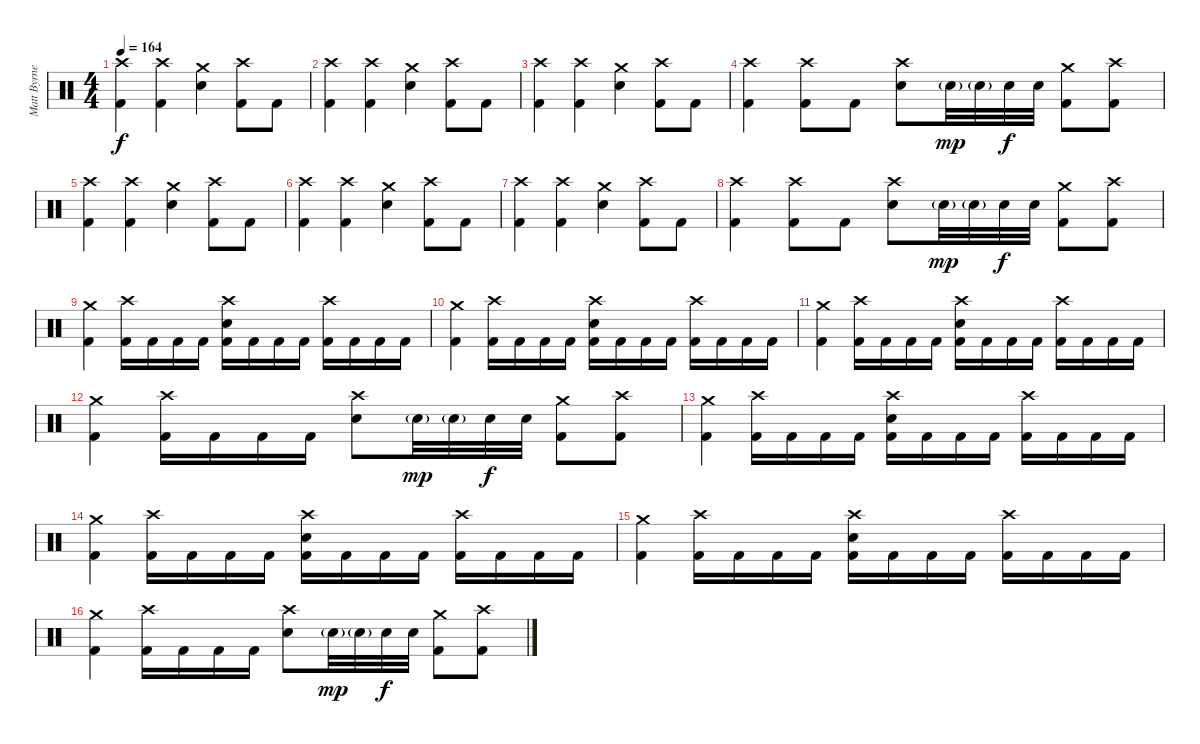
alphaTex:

\track ("Matt Byrne (Drums)" "Matt Byrne") {instrument percussion}
\staff {score}
\articulation defaults
\ts (4 4)
\tempo 164
\clef neutral
\ks c
("Crash high (hit)" "Kick (hit) 2").4{dy f} ("Crash high (hit)" "Kick (hit) 2").4 ("Crash medium (hit)" "Electric Snare (hit)").4 ("Crash high (hit)" "Kick (hit) 2").8 "Kick (hit) 2".8 |
("Crash high (hit)" "Kick (hit) 2").4 ("Crash high (hit)" "Kick (hit) 2").4 ("Crash medium (hit)" "Electric Snare (hit)").4 ("Crash high (hit)" "Kick (hit) 2").8 "Kick (hit) 2".8 |
("Crash high (hit)" "Kick (hit) 2").4 ("Crash high (hit)" "Kick (hit) 2").4 ("Crash medium (hit)" "Electric Snare (hit)").4 ("Crash high (hit)" "Kick (hit) 2").8 "Kick (hit) 2".8 |
("Crash high (hit)" "Kick (hit) 2").4 ("Crash high (hit)" "Kick (hit) 2").8 "Kick (hit) 2".8 ("Crash high (hit)" "Electric Snare (hit)").8 "Electric Snare (hit)"{g}.32{dy mp} "Electric Snare (hit)"{g}.32 "Electric Snare (hit)".32{dy f} "Electric Snare (hit)".32 ("Crash medium (hit)" "Kick (hit) 2").8 ("Crash high (hit)" "Kick (hit) 2").8 |
("Crash high (hit)" "Kick (hit) 2").4 ("Crash high (hit)" "Kick (hit) 2").4 ("Crash medium (hit)" "Electric Snare (hit)").4 ("Crash high (hit)" "Kick (hit) 2").8 "Kick (hit) 2".8 |
("Crash high (hit)" "Kick (hit) 2").4 ("Crash high (hit)" "Kick (hit) 2").4 ("Crash medium (hit)" "Electric Snare (hit)").4 ("Crash high (hit)" "Kick (hit) 2").8 "Kick (hit) 2".8 |
("Crash high (hit)" "Kick (hit) 2").4 ("Crash high (hit)" "Kick (hit) 2").4 ("Crash medium (hit)" "Electric Snare (hit)").4 ("Crash high (hit)" "Kick (hit) 2").8 "Kick (hit) 2".8 |
("Crash high (hit)" "Kick (hit) 2").4 ("Crash high (hit)" "Kick (hit) 2").8 "Kick (hit) 2".8 ("Crash high (hit)" "Electric Snare (hit)").8 "Electric Snare (hit)"{g}.32{dy mp} "Electric Snare (hit)"{g}.32 "Electric Snare (hit)".32{dy f} "Electric Snare (hit)".32 ("Crash medium (hit)" "Kick (hit) 2").8 ("Crash high (hit)" "Kick (hit) 2").8 |
("Crash medium (hit)" "Kick (hit) 2").4 ("Crash high (hit)" "Kick (hit) 2").16 "Kick (hit) 2".16 "Kick (hit) 2".16 "Kick (hit) 2".16 ("Electric Snare (hit)" "Crash high (hit)" "Kick (hit) 2").16 "Kick (hit) 2".16 "Kick (hit) 2".16 "Kick (hit) 2".16 ("Crash high (hit)" "Kick (hit) 2").16 "Kick (hit) 2".16 "Kick (hit) 2".16 "Kick (hit) 2".16 |
("Crash medium (hit)" "Kick (hit) 2").4 ("Crash high (hit)" "Kick (hit) 2").16 "Kick (hit) 2".16 "Kick (hit) 2".16 "Kick (hit) 2".16 ("Electric Snare (hit)" "Crash high (hit)" "Kick (hit) 2").16 "Kick (hit) 2".16 "Kick (hit) 2".16 "Kick (hit) 2".16 ("Crash high (hit)" "Kick (hit) 2").16 "Kick (hit) 2".16 "Kick (hit) 2".16 "Kick (hit) 2".16 |
("Crash medium (hit)" "Kick (hit) 2").4 ("Crash high (hit)" "Kick (hit) 2").16 "Kick (hit) 2".16 "Kick (hit) 2".16 "Kick (hit) 2".16 ("Electric Snare (hit)" "Crash high (hit)" "Kick (hit) 2").16 "Kick (hit) 2".16 "Kick (hit) 2".16 "Kick (hit) 2".16 ("Crash high (hit)" "Kick (hit) 2").16 "Kick (hit) 2".16 "Kick (hit) 2".16 "Kick (hit) 2".16 |
("Crash medium (hit)" "Kick (hit) 2").4 ("Crash high (hit)" "Kick (hit) 2").16 "Kick (hit) 2".16 "Kick (hit) 2".16 "Kick (hit) 2".16 ("Electric Snare (hit)" "Crash high (hit)").8 "Electric Snare (hit)"{g}.32{dy mp} "Electric Snare (hit)"{g}.32 "Electric Snare (hit)".32{dy f} "Electric Snare (hit)".32 ("Crash medium (hit)" "Kick (hit) 2").8 ("Crash high (hit)" "Kick (hit) 2").8 |
("Crash medium (hit)" "Kick (hit) 2").4 ("Crash high (hit)" "Kick (hit) 2").16 "Kick (hit) 2".16 "Kick (hit) 2".16 "Kick (hit) 2".16 ("Electric Snare (hit)" "Crash high (hit)" "Kick (hit) 2").16 "Kick (hit) 2".16 "Kick (hit) 2".16 "Kick (hit) 2".16 ("Crash high (hit)" "Kick (hit) 2").16 "Kick (hit) 2".16 "Kick (hit) 2".16 "Kick (hit) 2".16 |
("Crash medium (hit)" "Kick (hit) 2").4 ("Crash high (hit)" "Kick (hit) 2").16 "Kick (hit) 2".16 "Kick (hit) 2".16 "Kick (hit) 2".16 ("Electric Snare (hit)" "Crash high (hit)" "Kick (hit) 2").16 "Kick (hit) 2".16 "Kick (hit) 2".16 "Kick (hit) 2".16 ("Crash high (hit)" "Kick (hit) 2").16 "Kick (hit) 2".16 "Kick (hit) 2".16 "Kick (hit) 2".16 |
("Crash medium (hit)" "Kick (hit) 2").4 ("Crash high (hit)" "Kick (hit) 2").16 "Kick (hit) 2".16 "Kick (hit) 2".16 "Kick (hit) 2".16 ("Electric Snare (hit)" "Crash high (hit)" "Kick (hit) 2").16 "Kick (hit) 2".16 "Kick (hit) 2".16 "Kick (hit) 2".16 ("Crash high (hit)" "Kick (hit) 2").16 "Kick (hit) 2".16 "Kick (hit) 2".16 "Kick (hit) 2".16 |
("Crash medium (hit)" "Kick (hit) 2").4 ("Crash high (hit)" "Kick (hit) 2").16 "Kick (hit) 2".16 "Kick (hit) 2".16 "Kick (hit) 2".16 ("Electric Snare (hit)" "Crash high (hit)").8 "Electric Snare (hit)"{g}.32{dy mp} "Electric Snare (hit)"{g}.32 "Electric Snare (hit)".32{dy f} "Electric Snare (hit)".32 ("Crash medium (hit)" "Kick (hit) 2").8 ("Crash high (hit)" "Kick (hit) 2").8
